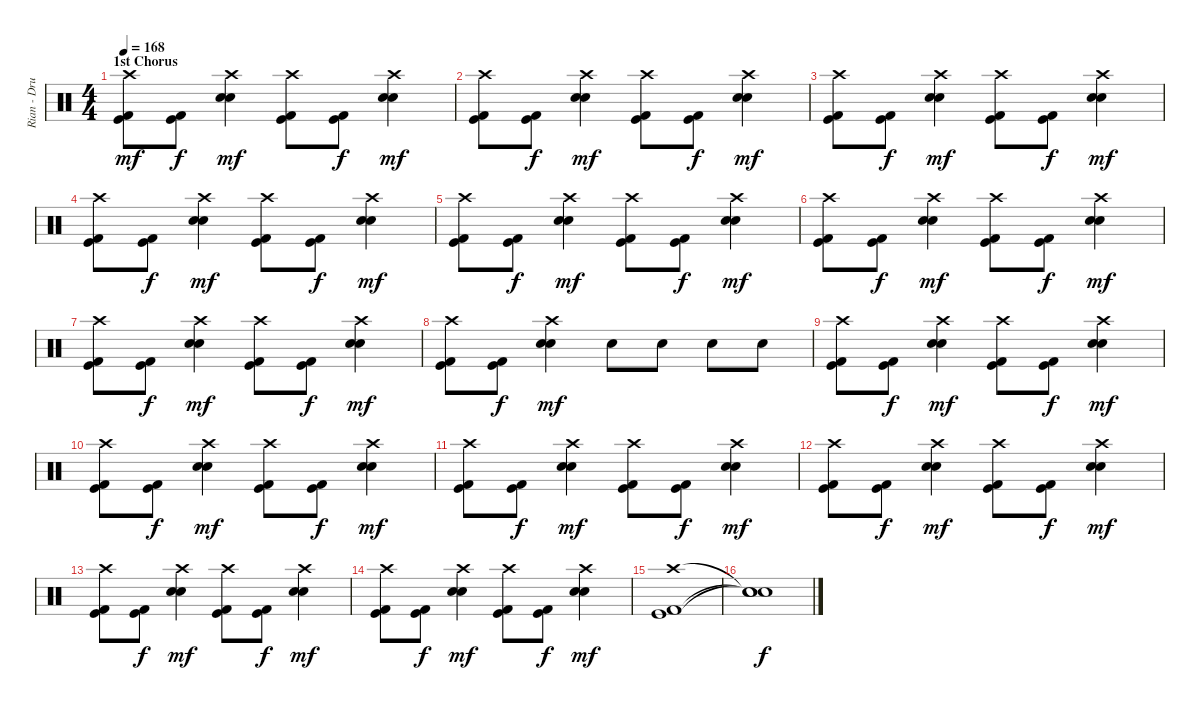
\track ("Rian - Drums" "Rian - Dru") {instrument percussion}
\staff {score}
\articulation defaults
\ts (4 4)
\section ("" "1st Chorus")
\tempo 168
\clef neutral
\ks c
("Kick (hit) 2" "Kick (hit)" "Crash high (hit)").8{dy mf} ("Kick (hit) 2" "Kick (hit)").8{dy f} ("Electric Snare (hit)" "Electric Snare (hit)" "Crash high (hit)").4{dy mf} ("Kick (hit) 2" "Kick (hit)" "Crash high (hit)").8 ("Kick (hit) 2" "Kick (hit)").8{dy f} ("Electric Snare (hit)" "Electric Snare (hit)" "Crash high (hit)").4{dy mf} |
("Kick (hit) 2" "Kick (hit)" "Crash high (hit)").8 ("Kick (hit) 2" "Kick (hit)").8{dy f} ("Electric Snare (hit)" "Electric Snare (hit)" "Crash high (hit)").4{dy mf} ("Kick (hit) 2" "Kick (hit)" "Crash high (hit)").8 ("Kick (hit) 2" "Kick (hit)").8{dy f} ("Electric Snare (hit)" "Electric Snare (hit)" "Crash high (hit)").4{dy mf} |
("Kick (hit) 2" "Kick (hit)" "Crash high (hit)").8 ("Kick (hit) 2" "Kick (hit)").8{dy f} ("Electric Snare (hit)" "Electric Snare (hit)" "Crash high (hit)").4{dy mf} ("Kick (hit) 2" "Kick (hit)" "Crash high (hit)").8 ("Kick (hit) 2" "Kick (hit)").8{dy f} ("Electric Snare (hit)" "Electric Snare (hit)" "Crash high (hit)").4{dy mf} |
("Kick (hit) 2" "Kick (hit)" "Crash high (hit)").8 ("Kick (hit) 2" "Kick (hit)").8{dy f} ("Electric Snare (hit)" "Electric Snare (hit)" "Crash high (hit)").4{dy mf} ("Kick (hit) 2" "Kick (hit)" "Crash high (hit)").8 ("Kick (hit) 2" "Kick (hit)").8{dy f} ("Electric Snare (hit)" "Electric Snare (hit)" "Crash high (hit)").4{dy mf} |
("Kick (hit) 2" "Kick (hit)" "Crash high (hit)").8 ("Kick (hit) 2" "Kick (hit)").8{dy f} ("Electric Snare (hit)" "Electric Snare (hit)" "Crash high (hit)").4{dy mf} ("Kick (hit) 2" "Kick (hit)" "Crash high (hit)").8 ("Kick (hit) 2" "Kick (hit)").8{dy f} ("Electric Snare (hit)" "Electric Snare (hit)" "Crash high (hit)").4{dy mf} |
("Kick (hit) 2" "Kick (hit)" "Crash high (hit)").8 ("Kick (hit) 2" "Kick (hit)").8{dy f} ("Electric Snare (hit)" "Electric Snare (hit)" "Crash high (hit)").4{dy mf} ("Kick (hit) 2" "Kick (hit)" "Crash high (hit)").8 ("Kick (hit) 2" "Kick (hit)").8{dy f} ("Electric Snare (hit)" "Electric Snare (hit)" "Crash high (hit)").4{dy mf} |
("Kick (hit) 2" "Kick (hit)" "Crash high (hit)").8 ("Kick (hit) 2" "Kick (hit)").8{dy f} ("Electric Snare (hit)" "Electric Snare (hit)" "Crash high (hit)").4{dy mf} ("Kick (hit) 2" "Kick (hit)" "Crash high (hit)").8 ("Kick (hit) 2" "Kick (hit)").8{dy f} ("Electric Snare (hit)" "Electric Snare (hit)" "Crash high (hit)").4{dy mf} |
("Kick (hit) 2" "Kick (hit)" "Crash high (hit)").8 ("Kick (hit) 2" "Kick (hit)").8{dy f} ("Electric Snare (hit)" "Electric Snare (hit)" "Crash high (hit)").4{dy mf} "Electric Snare (hit)".8 "Electric Snare (hit)".8 "Electric Snare (hit)".8 "Electric Snare (hit)".8 |
("Kick (hit) 2" "Kick (hit)" "Crash high (hit)").8 ("Kick (hit) 2" "Kick (hit)").8{dy f} ("Electric Snare (hit)" "Electric Snare (hit)" "Crash high (hit)").4{dy mf} ("Kick (hit) 2" "Kick (hit)" "Crash high (hit)").8 ("Kick (hit) 2" "Kick (hit)").8{dy f} ("Electric Snare (hit)" "Electric Snare (hit)" "Crash high (hit)").4{dy mf} |
("Kick (hit) 2" "Kick (hit)" "Crash high (hit)").8 ("Kick (hit) 2" "Kick (hit)").8{dy f} ("Electric Snare (hit)" "Electric Snare (hit)" "Crash high (hit)").4{dy mf} ("Kick (hit) 2" "Kick (hit)" "Crash high (hit)").8 ("Kick (hit) 2" "Kick (hit)").8{dy f} ("Electric Snare (hit)" "Electric Snare (hit)" "Crash high (hit)").4{dy mf} |
("Kick (hit) 2" "Kick (hit)" "Crash high (hit)").8 ("Kick (hit) 2" "Kick (hit)").8{dy f} ("Electric Snare (hit)" "Electric Snare (hit)" "Crash high (hit)").4{dy mf} ("Kick (hit) 2" "Kick (hit)" "Crash high (hit)").8 ("Kick (hit) 2" "Kick (hit)").8{dy f} ("Electric Snare (hit)" "Electric Snare (hit)" "Crash high (hit)").4{dy mf} |
("Kick (hit) 2" "Kick (hit)" "Crash high (hit)").8 ("Kick (hit) 2" "Kick (hit)").8{dy f} ("Electric Snare (hit)" "Electric Snare (hit)" "Crash high (hit)").4{dy mf} ("Kick (hit) 2" "Kick (hit)" "Crash high (hit)").8 ("Kick (hit) 2" "Kick (hit)").8{dy f} ("Electric Snare (hit)" "Electric Snare (hit)" "Crash high (hit)").4{dy mf} |
("Kick (hit) 2" "Kick (hit)" "Crash high (hit)").8 ("Kick (hit) 2" "Kick (hit)").8{dy f} ("Electric Snare (hit)" "Electric Snare (hit)" "Crash high (hit)").4{dy mf} ("Kick (hit) 2" "Kick (hit)" "Crash high (hit)").8 ("Kick (hit) 2" "Kick (hit)").8{dy f} ("Electric Snare (hit)" "Electric Snare (hit)" "Crash high (hit)").4{dy mf} |
("Kick (hit) 2" "Kick (hit)" "Crash high (hit)").8 ("Kick (hit) 2" "Kick (hit)").8{dy f} ("Electric Snare (hit)" "Electric Snare (hit)" "Crash high (hit)").4{dy mf} ("Kick (hit) 2" "Kick (hit)" "Crash high (hit)").8 ("Kick (hit) 2" "Kick (hit)").8{dy f} ("Electric Snare (hit)" "Electric Snare (hit)" "Crash high (hit)").4{dy mf} |
("Kick (hit) 2" "Kick (hit)" "Crash high (hit)").1 |
("Snare (hit)"{t} "Snare (hit)"{t} "Snare (hit)"{t}).1{dy f}
